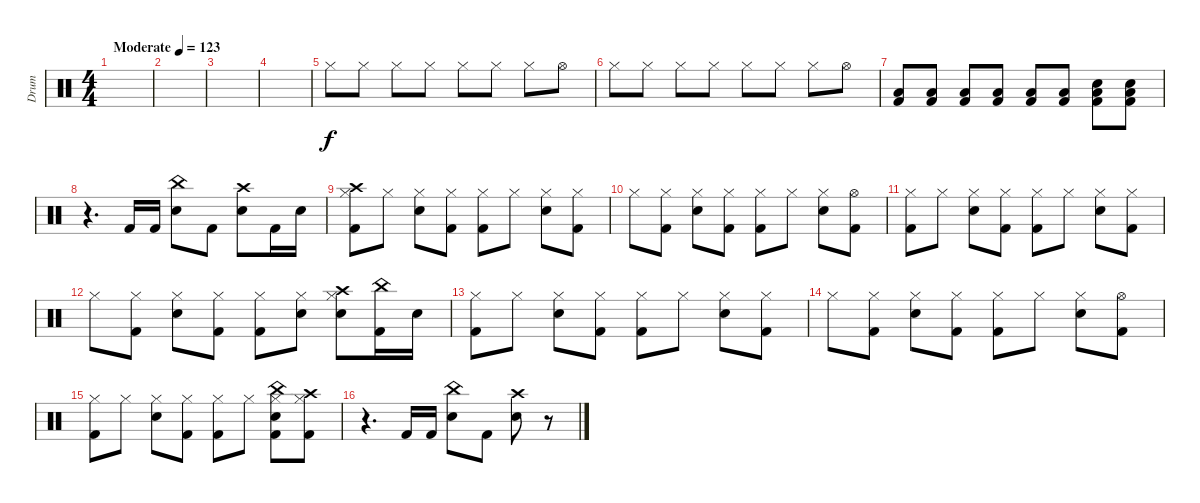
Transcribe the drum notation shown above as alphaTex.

\track ("Drum" "Drum") {instrument percussion}
\staff {score}
\articulation defaults
\ts (4 4)
\tempo (123 "Moderate")
\clef neutral
\ks c
|
|
|
|
"Hi-Hat (closed)".8 "Hi-Hat (closed)".8 "Hi-Hat (closed)".8 "Hi-Hat (closed)".8 "Hi-Hat (closed)".8 "Hi-Hat (closed)".8 "Hi-Hat (closed)".8 "Hi-Hat (open)".8 |
"Hi-Hat (closed)".8 "Hi-Hat (closed)".8 "Hi-Hat (closed)".8 "Hi-Hat (closed)".8 "Hi-Hat (closed)".8 "Hi-Hat (closed)".8 "Hi-Hat (closed)".8 "Hi-Hat (open)".8 |
("Low Floor Tom (hit)" "Kick (hit) 2").8 ("Low Floor Tom (hit)" "Kick (hit) 2").8 ("Low Floor Tom (hit)" "Kick (hit) 2").8 ("Low Floor Tom (hit)" "Kick (hit) 2").8 ("Low Floor Tom (hit)" "Kick (hit) 2").8 ("Low Floor Tom (hit)" "Kick (hit) 2").8 ("Low Floor Tom (hit)" "Electric Snare (hit)" "Kick (hit) 2").8 ("Low Floor Tom (hit)" "Electric Snare (hit)" "Kick (hit) 2").8 |
r.4{d} "Kick (hit) 2".16 "Kick (hit) 2".16 ("China (hit)" "Electric Snare (hit)").8 "Kick (hit) 2".8 ("Crash high (hit)" "Electric Snare (hit)").8 "Kick (hit) 2".16 "Electric Snare (hit)".16 |
("Crash high (hit)" "Hi-Hat (closed)" "Kick (hit) 2").8 "Hi-Hat (closed)".8 ("Hi-Hat (closed)" "Electric Snare (hit)").8 ("Hi-Hat (closed)" "Kick (hit) 2").8 ("Hi-Hat (closed)" "Kick (hit) 2").8 "Hi-Hat (closed)".8 ("Hi-Hat (closed)" "Electric Snare (hit)").8 ("Hi-Hat (closed)" "Kick (hit) 2").8 |
"Hi-Hat (closed)".8 ("Hi-Hat (closed)" "Kick (hit) 2").8 ("Hi-Hat (closed)" "Electric Snare (hit)").8 ("Hi-Hat (closed)" "Kick (hit) 2").8 ("Hi-Hat (closed)" "Kick (hit) 2").8 "Hi-Hat (closed)".8 ("Hi-Hat (closed)" "Electric Snare (hit)").8 ("Hi-Hat (open)" "Kick (hit) 2").8 |
("Hi-Hat (closed)" "Kick (hit) 2").8 "Hi-Hat (closed)".8 ("Hi-Hat (closed)" "Electric Snare (hit)").8 ("Hi-Hat (closed)" "Kick (hit) 2").8 ("Hi-Hat (closed)" "Kick (hit) 2").8 "Hi-Hat (closed)".8 ("Hi-Hat (closed)" "Electric Snare (hit)").8 ("Hi-Hat (closed)" "Kick (hit) 2").8 |
"Hi-Hat (closed)".8 ("Hi-Hat (closed)" "Kick (hit) 2").8 ("Hi-Hat (closed)" "Electric Snare (hit)").8 ("Hi-Hat (closed)" "Kick (hit) 2").8 ("Hi-Hat (closed)" "Kick (hit) 2").8 ("Hi-Hat (closed)" "Electric Snare (hit)").8 ("Crash high (hit)" "Hi-Hat (closed)" "Electric Snare (hit)").8 ("China (hit)" "Kick (hit) 2").16 "Electric Snare (hit)".16 |
("Hi-Hat (closed)" "Kick (hit) 2").8 "Hi-Hat (closed)".8 ("Hi-Hat (closed)" "Electric Snare (hit)").8 ("Hi-Hat (closed)" "Kick (hit) 2").8 ("Hi-Hat (closed)" "Kick (hit) 2").8 "Hi-Hat (closed)".8 ("Hi-Hat (closed)" "Electric Snare (hit)").8 ("Hi-Hat (closed)" "Kick (hit) 2").8 |
"Hi-Hat (closed)".8 ("Hi-Hat (closed)" "Kick (hit) 2").8 ("Hi-Hat (closed)" "Electric Snare (hit)").8 ("Hi-Hat (closed)" "Kick (hit) 2").8 ("Hi-Hat (closed)" "Kick (hit) 2").8 "Hi-Hat (closed)".8 ("Hi-Hat (closed)" "Electric Snare (hit)").8 ("Hi-Hat (open)" "Kick (hit) 2").8 |
("Hi-Hat (closed)" "Kick (hit) 2").8 "Hi-Hat (closed)".8 ("Hi-Hat (closed)" "Electric Snare (hit)").8 ("Hi-Hat (closed)" "Kick (hit) 2").8 ("Hi-Hat (closed)" "Kick (hit) 2").8 "Hi-Hat (closed)".8 ("China (hit)" "Hi-Hat (closed)" "Electric Snare (hit)" "Kick (hit) 2").8 ("Crash high (hit)" "Hi-Hat (closed)" "Kick (hit) 2").8 |
r.4{d} "Kick (hit) 2".16 "Kick (hit) 2".16 ("China (hit)" "Electric Snare (hit)").8 "Kick (hit) 2".8 ("Crash high (hit)" "Electric Snare (hit)").8 r.8
